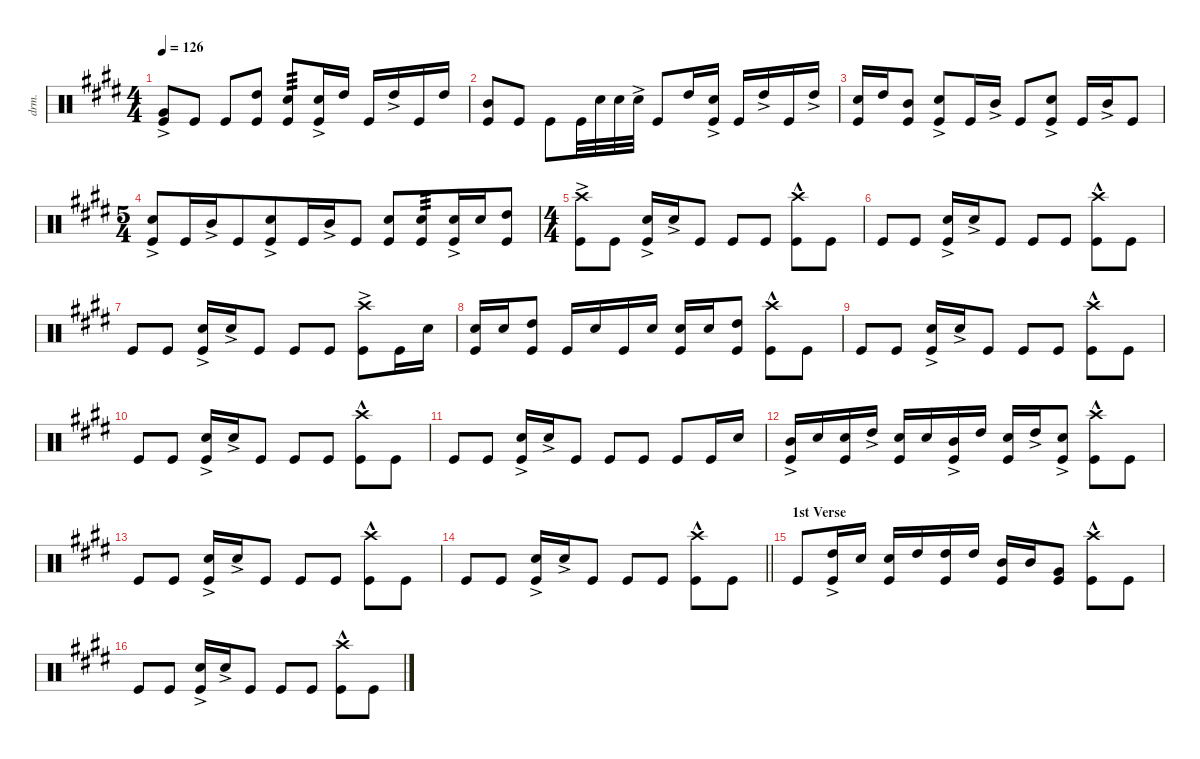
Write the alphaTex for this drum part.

\defaultSystemsLayout 4
\hideDynamics
\bracketExtendMode nobrackets
\otherSystemsTrackNameOrientation horizontal
\track ("Mitch" "drm.") {instrument percussion}
\staff {score}
\articulation defaults
\ts (4 4)
\tempo 126
\clef neutral
\ks e
("Very Low Tom (hit)"{ac acc forcenatural} "Kick (hit)"{acc forcenatural}).8{dy f beam Up} "Kick (hit)"{acc forcenatural}.8{beam Up} "Kick (hit)"{acc forcenatural}.8{beam Up} ("High Tom (hit)"{acc forcenatural} "Kick (hit)"{acc forcenatural}).8{beam Up} ("Snare (hit) 2"{acc forcenatural} "Kick (hit)"{acc forcenatural}).8{tp 3 beam Up} ("Snare (hit) 2"{ac acc forcenatural} "Kick (hit)"{acc forcenatural}).16{beam Up} "High Tom (hit)"{acc forcenatural}.16{beam Up} "Kick (hit)"{acc forcenatural}.16{beam Up} "High Tom (hit)"{ac acc forcenatural}.16{beam Up} "Kick (hit)"{acc forcenatural}.16{beam Up} "High Tom (hit)"{acc forcenatural}.16{beam Up} |
("Mid Tom (hit)"{acc forcenatural} "Kick (hit)"{acc forcenatural}).8{beam Up} "Kick (hit)"{acc forcenatural}.8{beam Up} "Kick (hit)"{acc forcenatural}.8{beam Down} "Kick (hit)"{acc forcenatural}.32{beam Down} "Snare (hit) 2"{acc forcenatural}.32{beam Down} "Snare (hit) 2"{acc forcenatural}.32{beam Down} "Snare (hit) 2"{ac acc forcenatural}.32{beam Down} "Kick (hit)"{acc forcenatural}.8{beam Up} "High Tom (hit)"{acc forcenatural}.16{beam Up} ("Snare (hit) 2"{ac acc forcenatural} "Kick (hit)"{acc forcenatural}).16{beam Up} "Kick (hit)"{acc forcenatural}.16{beam Up} "High Tom (hit)"{ac acc forcenatural}.16{beam Up} "Kick (hit)"{acc forcenatural}.16{beam Up} "High Tom (hit)"{ac acc forcenatural}.16{beam Up} |
("Snare (hit) 2"{acc forcenatural} "Kick (hit)"{acc forcenatural}).16{beam Up} "High Tom (hit)"{acc forcenatural}.16{beam Up} ("Mid Tom (hit)"{acc forcenatural} "Kick (hit)"{acc forcenatural}).8{beam Up} ("Snare (hit) 2"{ac acc forcenatural} "Kick (hit)"{acc forcenatural}).8{beam Up} "Kick (hit)"{acc forcenatural}.16{beam Up} "Mid Tom (hit)"{ac acc forcenatural}.16{beam Up} "Kick (hit)"{acc forcenatural}.8{beam Up} ("Snare (hit) 2"{ac acc forcenatural} "Kick (hit)"{acc forcenatural}).8{beam Up} "Kick (hit)"{acc forcenatural}.16{beam Up} "Mid Tom (hit)"{ac acc forcenatural}.16{beam Up} "Kick (hit)"{acc forcenatural}.8{beam Up} |
\ts (5 4)
\beaming (8 6 4)
("Snare (hit) 2"{ac acc forcenatural} "Kick (hit)"{acc forcenatural}).8{beam Up} "Kick (hit)"{acc forcenatural}.16{beam Up} "Mid Tom (hit)"{ac acc forcenatural}.16{beam Up} "Kick (hit)"{acc forcenatural}.8{beam Up} ("Snare (hit) 2"{ac acc forcenatural} "Kick (hit)"{acc forcenatural}).8{beam Up} "Kick (hit)"{acc forcenatural}.16{beam Up} "Mid Tom (hit)"{ac acc forcenatural}.16{beam Up} "Kick (hit)"{acc forcenatural}.8{beam Up} ("Snare (hit) 2"{acc forcenatural} "Kick (hit)"{acc forcenatural}).8{beam Up} ("Snare (hit) 2"{acc forcenatural} "Kick (hit)"{acc forcenatural}).8{tp 3 beam Up} ("Snare (hit) 2"{ac acc forcenatural} "Kick (hit)"{acc forcenatural}).16{beam Up} "Snare (hit) 2"{acc forcenatural}.16{beam Up} ("High Tom (hit)"{acc forcenatural} "Kick (hit)"{acc forcenatural}).8{beam Up} |
\ts (4 4)
\beaming (8 2 2 2 2)
("Crash high (hit)"{ac acc forcenatural} "Kick (hit)"{acc forcenatural}).8{beam Down} "Kick (hit)"{acc forcenatural}.8{beam Down} ("Snare (hit) 2"{ac acc forcenatural} "Kick (hit)"{acc forcenatural}).16{beam Up} "Snare (hit) 2"{ac acc forcenatural}.16{beam Up} "Kick (hit)"{acc forcenatural}.8{beam Up} "Kick (hit)"{acc forcenatural}.8{beam Up} "Kick (hit)"{acc forcenatural}.8{beam Up} ("Crash high (hit)"{hac acc forcenatural} "Kick (hit)"{acc forcenatural}).8{beam Down} "Kick (hit)"{acc forcenatural}.8{beam Down} |
"Kick (hit)"{acc forcenatural}.8{beam Up} "Kick (hit)"{acc forcenatural}.8{beam Up} ("Snare (hit) 2"{ac acc forcenatural} "Kick (hit)"{acc forcenatural}).16{beam Up} "Snare (hit) 2"{ac acc forcenatural}.16{beam Up} "Kick (hit)"{acc forcenatural}.8{beam Up} "Kick (hit)"{acc forcenatural}.8{beam Up} "Kick (hit)"{acc forcenatural}.8{beam Up} ("Crash high (hit)"{hac acc forcenatural} "Kick (hit)"{acc forcenatural}).8{beam Down} "Kick (hit)"{acc forcenatural}.8{beam Down} |
"Kick (hit)"{acc forcenatural}.8{beam Up} "Kick (hit)"{acc forcenatural}.8{beam Up} ("Snare (hit) 2"{ac acc forcenatural} "Kick (hit)"{acc forcenatural}).16{beam Up} "Snare (hit) 2"{ac acc forcenatural}.16{beam Up} "Kick (hit)"{acc forcenatural}.8{beam Up} "Kick (hit)"{acc forcenatural}.8{beam Up} "Kick (hit)"{acc forcenatural}.8{beam Up} ("Crash high (hit)"{ac acc forcenatural} "Kick (hit)"{acc forcenatural}).8{beam Down} "Kick (hit)"{acc forcenatural}.16{beam Down} "Snare (hit) 2"{acc forcenatural}.16{beam Down} |
("Snare (hit) 2"{acc forcenatural} "Kick (hit)"{acc forcenatural}).16{beam Up} "Snare (hit) 2"{acc forcenatural}.16{beam Up} ("High Tom (hit)"{acc forcenatural} "Kick (hit)"{acc forcenatural}).8{beam Up} "Kick (hit)"{acc forcenatural}.16{beam Up} "Snare (hit) 2"{acc forcenatural}.16{beam Up} "Kick (hit)"{acc forcenatural}.16{beam Up} "Snare (hit) 2"{acc forcenatural}.16{beam Up} ("Snare (hit) 2"{acc forcenatural} "Kick (hit)"{acc forcenatural}).16{beam Up} "Snare (hit) 2"{acc forcenatural}.16{beam Up} ("High Tom (hit)"{acc forcenatural} "Kick (hit)"{acc forcenatural}).8{beam Up} ("Crash high (hit)"{hac acc forcenatural} "Kick (hit)"{acc forcenatural}).8{beam Down} "Kick (hit)"{acc forcenatural}.8{beam Down} |
"Kick (hit)"{acc forcenatural}.8{beam Up} "Kick (hit)"{acc forcenatural}.8{beam Up} ("Snare (hit) 2"{ac acc forcenatural} "Kick (hit)"{acc forcenatural}).16{beam Up} "Snare (hit) 2"{ac acc forcenatural}.16{beam Up} "Kick (hit)"{acc forcenatural}.8{beam Up} "Kick (hit)"{acc forcenatural}.8{beam Up} "Kick (hit)"{acc forcenatural}.8{beam Up} ("Crash high (hit)"{hac acc forcenatural} "Kick (hit)"{acc forcenatural}).8{beam Down} "Kick (hit)"{acc forcenatural}.8{beam Down} |
"Kick (hit)"{acc forcenatural}.8{beam Up} "Kick (hit)"{acc forcenatural}.8{beam Up} ("Snare (hit) 2"{ac acc forcenatural} "Kick (hit)"{acc forcenatural}).16{beam Up} "Snare (hit) 2"{ac acc forcenatural}.16{beam Up} "Kick (hit)"{acc forcenatural}.8{beam Up} "Kick (hit)"{acc forcenatural}.8{beam Up} "Kick (hit)"{acc forcenatural}.8{beam Up} ("Crash high (hit)"{hac acc forcenatural} "Kick (hit)"{acc forcenatural}).8{beam Down} "Kick (hit)"{acc forcenatural}.8{beam Down} |
"Kick (hit)"{acc forcenatural}.8{beam Up} "Kick (hit)"{acc forcenatural}.8{beam Up} ("Snare (hit) 2"{ac acc forcenatural} "Kick (hit)"{acc forcenatural}).16{beam Up} "Snare (hit) 2"{ac acc forcenatural}.16{beam Up} "Kick (hit)"{acc forcenatural}.8{beam Up} "Kick (hit)"{acc forcenatural}.8{beam Up} "Kick (hit)"{acc forcenatural}.8{beam Up} "Kick (hit)"{acc forcenatural}.8{beam Up} "Kick (hit)"{acc forcenatural}.16{beam Up} "Snare (hit) 2"{acc forcenatural}.16{beam Up} |
("Mid Tom (hit)"{ac acc forcenatural} "Kick (hit)"{acc forcenatural}).16{beam Up} "Snare (hit) 2"{acc forcenatural}.16{beam Up} ("Snare (hit) 2"{acc forcenatural} "Kick (hit)"{acc forcenatural}).16{beam Up} "High Tom (hit)"{ac acc forcenatural}.16{beam Up} ("Snare (hit) 2"{acc forcenatural} "Kick (hit)"{acc forcenatural}).16{beam Up} "Snare (hit) 2"{acc forcenatural}.16{beam Up} ("Mid Tom (hit)"{ac acc forcenatural} "Kick (hit)"{acc forcenatural}).16{beam Up} "High Tom (hit)"{acc forcenatural}.16{beam Up} ("Snare (hit) 2"{acc forcenatural} "Kick (hit)"{acc forcenatural}).16{beam Up} "High Tom (hit)"{ac acc forcenatural}.16{beam Up} ("Snare (hit) 2"{ac acc forcenatural} "Kick (hit)"{acc forcenatural}).8{beam Up} ("Crash high (hit)"{hac acc forcenatural} "Kick (hit)"{acc forcenatural}).8{beam Down} "Kick (hit)"{acc forcenatural}.8{beam Down} |
"Kick (hit)"{acc forcenatural}.8{beam Up} "Kick (hit)"{acc forcenatural}.8{beam Up} ("Snare (hit) 2"{ac acc forcenatural} "Kick (hit)"{acc forcenatural}).16{beam Up} "Snare (hit) 2"{ac acc forcenatural}.16{beam Up} "Kick (hit)"{acc forcenatural}.8{beam Up} "Kick (hit)"{acc forcenatural}.8{beam Up} "Kick (hit)"{acc forcenatural}.8{beam Up} ("Crash high (hit)"{hac acc forcenatural} "Kick (hit)"{acc forcenatural}).8{beam Down} "Kick (hit)"{acc forcenatural}.8{beam Down} |
\barLineRight lightlight "Kick (hit)"{acc forcenatural}.8{beam Up} "Kick (hit)"{acc forcenatural}.8{beam Up}
("Snare (hit) 2"{ac acc forcenatural} "Kick (hit)"{acc forcenatural}).16{beam Up} "Snare (hit) 2"{ac acc forcenatural}.16{beam Up} "Kick (hit)"{acc forcenatural}.8{beam Up} "Kick (hit)"{acc forcenatural}.8{beam Up} "Kick (hit)"{acc forcenatural}.8{beam Up} ("Crash high (hit)"{hac acc forcenatural} "Kick (hit)"{acc forcenatural}).8{beam Down} "Kick (hit)"{acc forcenatural}.8{beam Down} |
\section ("" "1st Verse")
"Kick (hit)"{acc forcenatural}.8{beam Up} ("High Tom (hit)"{ac acc forcenatural} "Kick (hit)"{acc forcenatural}).16{beam Up} "Snare (hit) 2"{acc forcenatural}.16{beam Up} ("Snare (hit) 2"{acc forcenatural} "Kick (hit)"{acc forcenatural}).16{beam Up} "High Tom (hit)"{acc forcenatural}.16{beam Up} ("High Tom (hit)"{acc forcenatural} "Kick (hit)"{acc forcenatural}).16{beam Up} "High Tom (hit)"{acc forcenatural}.16{beam Up} ("Mid Tom (hit)"{acc forcenatural} "Kick (hit)"{acc forcenatural}).16{beam Up} "Mid Tom (hit)"{acc forcenatural}.16{beam Up} ("Very Low Tom (hit)"{acc forcenatural} "Kick (hit)"{acc forcenatural}).8{beam Up} ("Crash high (hit)"{hac acc forcenatural} "Kick (hit)"{acc forcenatural}).8{beam Down} "Kick (hit)"{acc forcenatural}.8{beam Down} |
"Kick (hit)"{acc forcenatural}.8{beam Up} "Kick (hit)"{acc forcenatural}.8{beam Up} ("Snare (hit) 2"{ac acc forcenatural} "Kick (hit)"{acc forcenatural}).16{beam Up} "Snare (hit) 2"{ac acc forcenatural}.16{beam Up} "Kick (hit)"{acc forcenatural}.8{beam Up} "Kick (hit)"{acc forcenatural}.8{beam Up} "Kick (hit)"{acc forcenatural}.8{beam Up} ("Crash high (hit)"{hac acc forcenatural} "Kick (hit)"{acc forcenatural}).8{beam Down} "Kick (hit)"{acc forcenatural}.8{beam Down}
